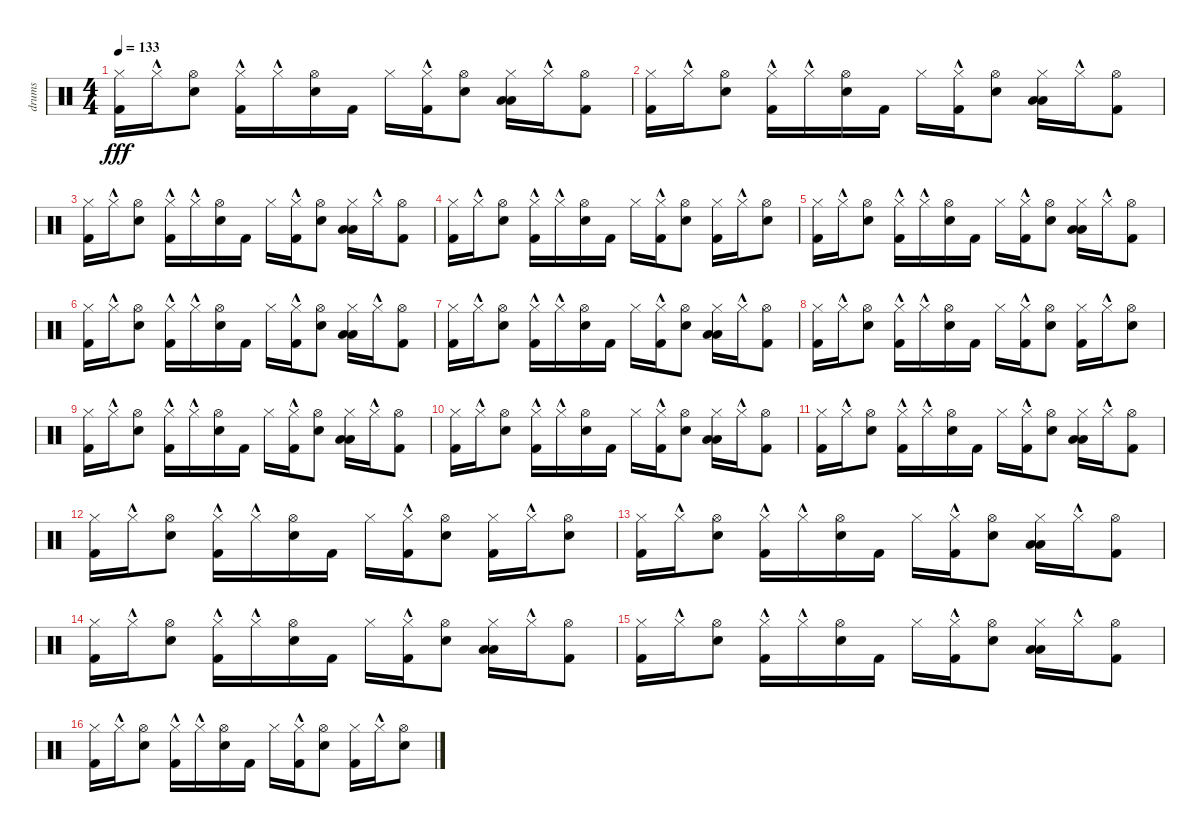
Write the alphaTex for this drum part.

\track ("drums" "drums") {instrument percussion}
\staff {score}
\articulation defaults
\ts (4 4)
\tempo 133
\clef neutral
\ks c
("Kick (hit) 2" "Hi-Hat (closed)").16{dy fff} "Hi-Hat (closed)"{hac}.16 ("Hi-Hat (open)" "Electric Snare (hit)").8 ("Kick (hit) 2"{hac} "Hi-Hat (closed)").16 "Hi-Hat (closed)"{hac}.16 ("Hi-Hat (open)" "Electric Snare (hit)").16 "Kick (hit) 2".16 "Hi-Hat (closed)".16 ("Kick (hit) 2" "Hi-Hat (closed)"{hac}).16 ("Hi-Hat (open)" "Electric Snare (hit)").8 ("Low Floor Tom (hit)" "Low Tom (hit)" "Hi-Hat (closed)").16 "Hi-Hat (closed)"{hac}.16 ("Hi-Hat (open)" "Kick (hit) 2").8 |
("Kick (hit) 2" "Hi-Hat (closed)").16 "Hi-Hat (closed)"{hac}.16 ("Hi-Hat (open)" "Electric Snare (hit)").8 ("Kick (hit) 2"{hac} "Hi-Hat (closed)").16 "Hi-Hat (closed)"{hac}.16 ("Hi-Hat (open)" "Electric Snare (hit)").16 "Kick (hit) 2".16 "Hi-Hat (closed)".16 ("Kick (hit) 2" "Hi-Hat (closed)"{hac}).16 ("Hi-Hat (open)" "Electric Snare (hit)").8 ("Low Floor Tom (hit)" "Low Tom (hit)" "Hi-Hat (closed)").16 "Hi-Hat (closed)"{hac}.16 ("Hi-Hat (open)" "Kick (hit) 2").8 |
("Kick (hit) 2" "Hi-Hat (closed)").16 "Hi-Hat (closed)"{hac}.16 ("Hi-Hat (open)" "Electric Snare (hit)").8 ("Kick (hit) 2"{hac} "Hi-Hat (closed)").16 "Hi-Hat (closed)"{hac}.16 ("Hi-Hat (open)" "Electric Snare (hit)").16 "Kick (hit) 2".16 "Hi-Hat (closed)".16 ("Kick (hit) 2" "Hi-Hat (closed)"{hac}).16 ("Hi-Hat (open)" "Electric Snare (hit)").8 ("Low Floor Tom (hit)" "Low Tom (hit)" "Hi-Hat (closed)").16 "Hi-Hat (closed)"{hac}.16 ("Hi-Hat (open)" "Kick (hit) 2").8 |
("Kick (hit) 2" "Hi-Hat (closed)").16 "Hi-Hat (closed)"{hac}.16 ("Hi-Hat (open)" "Electric Snare (hit)").8 ("Kick (hit) 2"{hac} "Hi-Hat (closed)").16 "Hi-Hat (closed)"{hac}.16 ("Hi-Hat (open)" "Electric Snare (hit)").16 "Kick (hit) 2".16 "Hi-Hat (closed)".16 ("Kick (hit) 2" "Hi-Hat (closed)"{hac}).16 ("Hi-Hat (open)" "Electric Snare (hit)").8 ("Hi-Hat (closed)" "Kick (hit) 2").16 "Hi-Hat (closed)"{hac}.16 ("Hi-Hat (open)" "Electric Snare (hit)").8 |
("Kick (hit) 2" "Hi-Hat (closed)").16 "Hi-Hat (closed)"{hac}.16 ("Hi-Hat (open)" "Electric Snare (hit)").8 ("Kick (hit) 2"{hac} "Hi-Hat (closed)").16 "Hi-Hat (closed)"{hac}.16 ("Hi-Hat (open)" "Electric Snare (hit)").16 "Kick (hit) 2".16 "Hi-Hat (closed)".16 ("Kick (hit) 2" "Hi-Hat (closed)"{hac}).16 ("Hi-Hat (open)" "Electric Snare (hit)").8 ("Low Floor Tom (hit)" "Low Tom (hit)" "Hi-Hat (closed)").16 "Hi-Hat (closed)"{hac}.16 ("Hi-Hat (open)" "Kick (hit) 2").8 |
("Kick (hit) 2" "Hi-Hat (closed)").16 "Hi-Hat (closed)"{hac}.16 ("Hi-Hat (open)" "Electric Snare (hit)").8 ("Kick (hit) 2"{hac} "Hi-Hat (closed)").16 "Hi-Hat (closed)"{hac}.16 ("Hi-Hat (open)" "Electric Snare (hit)").16 "Kick (hit) 2".16 "Hi-Hat (closed)".16 ("Kick (hit) 2" "Hi-Hat (closed)"{hac}).16 ("Hi-Hat (open)" "Electric Snare (hit)").8 ("Low Floor Tom (hit)" "Low Tom (hit)" "Hi-Hat (closed)").16 "Hi-Hat (closed)"{hac}.16 ("Hi-Hat (open)" "Kick (hit) 2").8 |
("Kick (hit) 2" "Hi-Hat (closed)").16 "Hi-Hat (closed)"{hac}.16 ("Hi-Hat (open)" "Electric Snare (hit)").8 ("Kick (hit) 2"{hac} "Hi-Hat (closed)").16 "Hi-Hat (closed)"{hac}.16 ("Hi-Hat (open)" "Electric Snare (hit)").16 "Kick (hit) 2".16 "Hi-Hat (closed)".16 ("Kick (hit) 2" "Hi-Hat (closed)"{hac}).16 ("Hi-Hat (open)" "Electric Snare (hit)").8 ("Low Floor Tom (hit)" "Low Tom (hit)" "Hi-Hat (closed)").16 "Hi-Hat (closed)"{hac}.16 ("Hi-Hat (open)" "Kick (hit) 2").8 |
("Kick (hit) 2" "Hi-Hat (closed)").16 "Hi-Hat (closed)"{hac}.16 ("Hi-Hat (open)" "Electric Snare (hit)").8 ("Kick (hit) 2"{hac} "Hi-Hat (closed)").16 "Hi-Hat (closed)"{hac}.16 ("Hi-Hat (open)" "Electric Snare (hit)").16 "Kick (hit) 2".16 "Hi-Hat (closed)".16 ("Kick (hit) 2" "Hi-Hat (closed)"{hac}).16 ("Hi-Hat (open)" "Electric Snare (hit)").8 ("Hi-Hat (closed)" "Kick (hit) 2").16 "Hi-Hat (closed)"{hac}.16 ("Hi-Hat (open)" "Electric Snare (hit)").8 |
("Kick (hit) 2" "Hi-Hat (closed)").16 "Hi-Hat (closed)"{hac}.16 ("Hi-Hat (open)" "Electric Snare (hit)").8 ("Kick (hit) 2"{hac} "Hi-Hat (closed)").16 "Hi-Hat (closed)"{hac}.16 ("Hi-Hat (open)" "Electric Snare (hit)").16 "Kick (hit) 2".16 "Hi-Hat (closed)".16 ("Kick (hit) 2" "Hi-Hat (closed)"{hac}).16 ("Hi-Hat (open)" "Electric Snare (hit)").8 ("Low Floor Tom (hit)" "Low Tom (hit)" "Hi-Hat (closed)").16 "Hi-Hat (closed)"{hac}.16 ("Hi-Hat (open)" "Kick (hit) 2").8 |
("Kick (hit) 2" "Hi-Hat (closed)").16 "Hi-Hat (closed)"{hac}.16 ("Hi-Hat (open)" "Electric Snare (hit)").8 ("Kick (hit) 2"{hac} "Hi-Hat (closed)").16 "Hi-Hat (closed)"{hac}.16 ("Hi-Hat (open)" "Electric Snare (hit)").16 "Kick (hit) 2".16 "Hi-Hat (closed)".16 ("Kick (hit) 2" "Hi-Hat (closed)"{hac}).16 ("Hi-Hat (open)" "Electric Snare (hit)").8 ("Low Floor Tom (hit)" "Low Tom (hit)" "Hi-Hat (closed)").16 "Hi-Hat (closed)"{hac}.16 ("Hi-Hat (open)" "Kick (hit) 2").8 |
("Kick (hit) 2" "Hi-Hat (closed)").16 "Hi-Hat (closed)"{hac}.16 ("Hi-Hat (open)" "Electric Snare (hit)").8 ("Kick (hit) 2"{hac} "Hi-Hat (closed)").16 "Hi-Hat (closed)"{hac}.16 ("Hi-Hat (open)" "Electric Snare (hit)").16 "Kick (hit) 2".16 "Hi-Hat (closed)".16 ("Kick (hit) 2" "Hi-Hat (closed)"{hac}).16 ("Hi-Hat (open)" "Electric Snare (hit)").8 ("Low Floor Tom (hit)" "Low Tom (hit)" "Hi-Hat (closed)").16 "Hi-Hat (closed)"{hac}.16 ("Hi-Hat (open)" "Kick (hit) 2").8 |
("Kick (hit) 2" "Hi-Hat (closed)").16 "Hi-Hat (closed)"{hac}.16 ("Hi-Hat (open)" "Electric Snare (hit)").8 ("Kick (hit) 2"{hac} "Hi-Hat (closed)").16 "Hi-Hat (closed)"{hac}.16 ("Hi-Hat (open)" "Electric Snare (hit)").16 "Kick (hit) 2".16 "Hi-Hat (closed)".16 ("Kick (hit) 2" "Hi-Hat (closed)"{hac}).16 ("Hi-Hat (open)" "Electric Snare (hit)").8 ("Hi-Hat (closed)" "Kick (hit) 2").16 "Hi-Hat (closed)"{hac}.16 ("Hi-Hat (open)" "Electric Snare (hit)").8 |
("Kick (hit) 2" "Hi-Hat (closed)").16 "Hi-Hat (closed)"{hac}.16 ("Hi-Hat (open)" "Electric Snare (hit)").8 ("Kick (hit) 2"{hac} "Hi-Hat (closed)").16 "Hi-Hat (closed)"{hac}.16 ("Hi-Hat (open)" "Electric Snare (hit)").16 "Kick (hit) 2".16 "Hi-Hat (closed)".16 ("Kick (hit) 2" "Hi-Hat (closed)"{hac}).16 ("Hi-Hat (open)" "Electric Snare (hit)").8 ("Low Floor Tom (hit)" "Low Tom (hit)" "Hi-Hat (closed)").16 "Hi-Hat (closed)"{hac}.16 ("Hi-Hat (open)" "Kick (hit) 2").8 |
("Kick (hit) 2" "Hi-Hat (closed)").16 "Hi-Hat (closed)"{hac}.16 ("Hi-Hat (open)" "Electric Snare (hit)").8 ("Kick (hit) 2"{hac} "Hi-Hat (closed)").16 "Hi-Hat (closed)"{hac}.16 ("Hi-Hat (open)" "Electric Snare (hit)").16 "Kick (hit) 2".16 "Hi-Hat (closed)".16 ("Kick (hit) 2" "Hi-Hat (closed)"{hac}).16 ("Hi-Hat (open)" "Electric Snare (hit)").8 ("Low Floor Tom (hit)" "Low Tom (hit)" "Hi-Hat (closed)").16 "Hi-Hat (closed)"{hac}.16 ("Hi-Hat (open)" "Kick (hit) 2").8 |
("Kick (hit) 2" "Hi-Hat (closed)").16 "Hi-Hat (closed)"{hac}.16 ("Hi-Hat (open)" "Electric Snare (hit)").8 ("Kick (hit) 2"{hac} "Hi-Hat (closed)").16 "Hi-Hat (closed)"{hac}.16 ("Hi-Hat (open)" "Electric Snare (hit)").16 "Kick (hit) 2".16 "Hi-Hat (closed)".16 ("Kick (hit) 2" "Hi-Hat (closed)"{hac}).16 ("Hi-Hat (open)" "Electric Snare (hit)").8 ("Low Floor Tom (hit)" "Low Tom (hit)" "Hi-Hat (closed)").16 "Hi-Hat (closed)"{hac}.16 ("Hi-Hat (open)" "Kick (hit) 2").8 |
("Kick (hit) 2" "Hi-Hat (closed)").16 "Hi-Hat (closed)"{hac}.16 ("Hi-Hat (open)" "Electric Snare (hit)").8 ("Kick (hit) 2"{hac} "Hi-Hat (closed)").16 "Hi-Hat (closed)"{hac}.16 ("Hi-Hat (open)" "Electric Snare (hit)").16 "Kick (hit) 2".16 "Hi-Hat (closed)".16 ("Kick (hit) 2" "Hi-Hat (closed)"{hac}).16 ("Hi-Hat (open)" "Electric Snare (hit)").8 ("Hi-Hat (closed)" "Kick (hit) 2").16 "Hi-Hat (closed)"{hac}.16 ("Hi-Hat (open)" "Electric Snare (hit)").8
